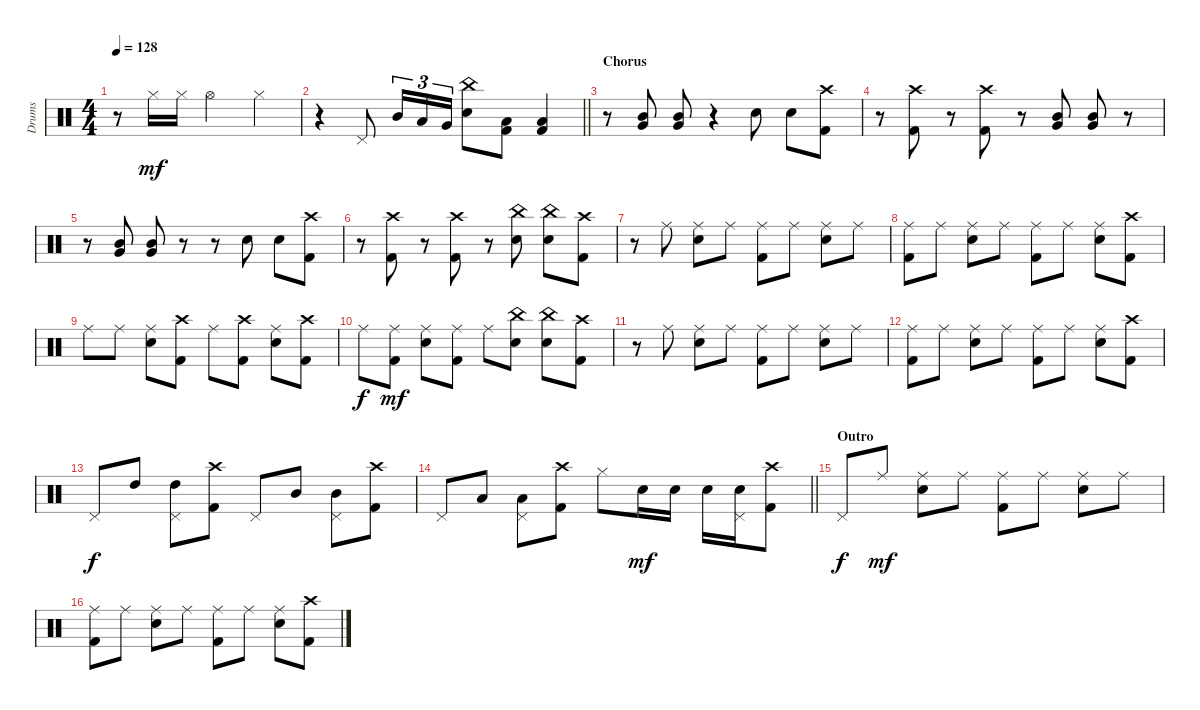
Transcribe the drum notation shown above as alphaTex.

\track ("Drums" "Drums") {instrument percussion}
\staff {score}
\articulation defaults
\ts (4 4)
\tempo 128
\clef neutral
\ks c
r.8{dy mf} "Hi-Hat (closed)".16 "Hi-Hat (closed)".16 "Hi-Hat (open)".2 "Hi-Hat (closed)".4 |
\barLineRight lightlight
r.4 "Pedal Hi-Hat (hit)".8 "Mid Tom (hit)".16{tu (3 2)} "Low Tom (hit)".16{tu (3 2)} "Very Low Tom (hit)".16{tu (3 2)} ("Snare (hit) 2" "China (hit)").8 ("Low Tom (hit)" "Kick (hit) 2").8 ("Low Tom (hit)" "Kick (hit) 2").4 |
\section ("" "Chorus")
r.8 ("Mid Tom (hit)" "Very Low Tom (hit)").8 ("Mid Tom (hit)" "Very Low Tom (hit)").8 r.4 "Snare (hit) 2".8 "Snare (hit) 2".8 ("Crash high (hit)" "Kick (hit) 2").8 |
r.8 ("Crash high (hit)" "Kick (hit) 2").8 r.8 ("Crash high (hit)" "Kick (hit) 2").8 r.8 ("Mid Tom (hit)" "Very Low Tom (hit)").8 ("Mid Tom (hit)" "Very Low Tom (hit)").8 r.8 |
r.8 ("Mid Tom (hit)" "Very Low Tom (hit)").8 ("Mid Tom (hit)" "Very Low Tom (hit)").8 r.8 r.8 "Snare (hit) 2".8 "Snare (hit) 2".8 ("Crash high (hit)" "Kick (hit) 2").8 |
r.8 ("Crash high (hit)" "Kick (hit) 2").8 r.8 ("Crash high (hit)" "Kick (hit) 2").8 r.8 ("Snare (hit) 2" "China (hit)").8 ("Snare (hit) 2" "China (hit)").8 ("Crash high (hit)" "Kick (hit) 2").8 |
r.8 "Ride (middle)".8 ("Ride (middle)" "Snare (hit) 2").8 "Ride (middle)".8 ("Ride (middle)" "Kick (hit) 2").8 "Ride (middle)".8 ("Ride (middle)" "Snare (hit) 2").8 "Ride (middle)".8 |
("Ride (middle)" "Kick (hit) 2").8 "Ride (middle)".8 ("Ride (middle)" "Snare (hit) 2").8 "Ride (middle)".8 ("Ride (middle)" "Kick (hit) 2").8 "Ride (middle)".8 ("Ride (middle)" "Snare (hit) 2").8 ("Crash high (hit)" "Kick (hit) 2").8 |
"Ride (middle)".8 "Ride (middle)".8 ("Ride (middle)" "Snare (hit) 2").8 ("Crash high (hit)" "Kick (hit) 2").8 "Ride (middle)".8 ("Crash high (hit)" "Kick (hit) 2").8 ("Ride (middle)" "Snare (hit) 2").8 ("Crash high (hit)" "Kick (hit) 2").8 |
"Ride (middle)".8{dy f} ("Ride (middle)" "Kick (hit) 2").8{dy mf} ("Ride (middle)" "Snare (hit) 2").8 ("Ride (middle)" "Kick (hit) 2").8 "Ride (middle)".8 ("China (hit)" "Snare (hit) 2").8 ("China (hit)" "Snare (hit) 2").8 ("Crash high (hit)" "Kick (hit) 2").8 |
r.8 "Ride (middle)".8 ("Ride (middle)" "Snare (hit) 2").8 "Ride (middle)".8 ("Ride (middle)" "Kick (hit) 2").8 "Ride (middle)".8 ("Ride (middle)" "Snare (hit) 2").8 "Ride (middle)".8 |
("Ride (middle)" "Kick (hit) 2").8 "Ride (middle)".8 ("Ride (middle)" "Snare (hit) 2").8 "Ride (middle)".8 ("Ride (middle)" "Kick (hit) 2").8 "Ride (middle)".8 ("Ride (middle)" "Snare (hit) 2").8 ("Crash high (hit)" "Kick (hit) 2").8 |
"Pedal Hi-Hat (hit)".8{dy f} "High Tom (hit)".8 ("Pedal Hi-Hat (hit)" "High Tom (hit)").8 ("Crash high (hit)" "Kick (hit) 2").8 "Pedal Hi-Hat (hit)".8 "Mid Tom (hit)".8 ("Pedal Hi-Hat (hit)" "Mid Tom (hit)").8 ("Crash high (hit)" "Kick (hit) 2").8 |
\barLineRight lightlight "Pedal Hi-Hat (hit)".8 "Low Tom (hit)".8
("Pedal Hi-Hat (hit)" "Low Tom (hit)").8 ("Crash high (hit)" "Kick (hit) 2").8 "Hi-Hat (closed)".8 "Snare (hit) 2".16{dy mf} "Snare (hit) 2".16 "Snare (hit) 2".16 ("Pedal Hi-Hat (hit)" "Snare (hit) 2").16 ("Crash high (hit)" "Kick (hit) 2").8 |
\section ("" "Outro")
"Pedal Hi-Hat (hit)".8{dy f} "Ride (middle)".8{dy mf} ("Ride (middle)" "Snare (hit) 2").8 "Ride (middle)".8 ("Ride (middle)" "Kick (hit) 2").8 "Ride (middle)".8 ("Ride (middle)" "Snare (hit) 2").8 "Ride (middle)".8 |
("Ride (middle)" "Kick (hit) 2").8 "Ride (middle)".8 ("Ride (middle)" "Snare (hit) 2").8 "Ride (middle)".8 ("Ride (middle)" "Kick (hit) 2").8 "Ride (middle)".8 ("Ride (middle)" "Snare (hit) 2").8 ("Crash high (hit)" "Kick (hit) 2").8
